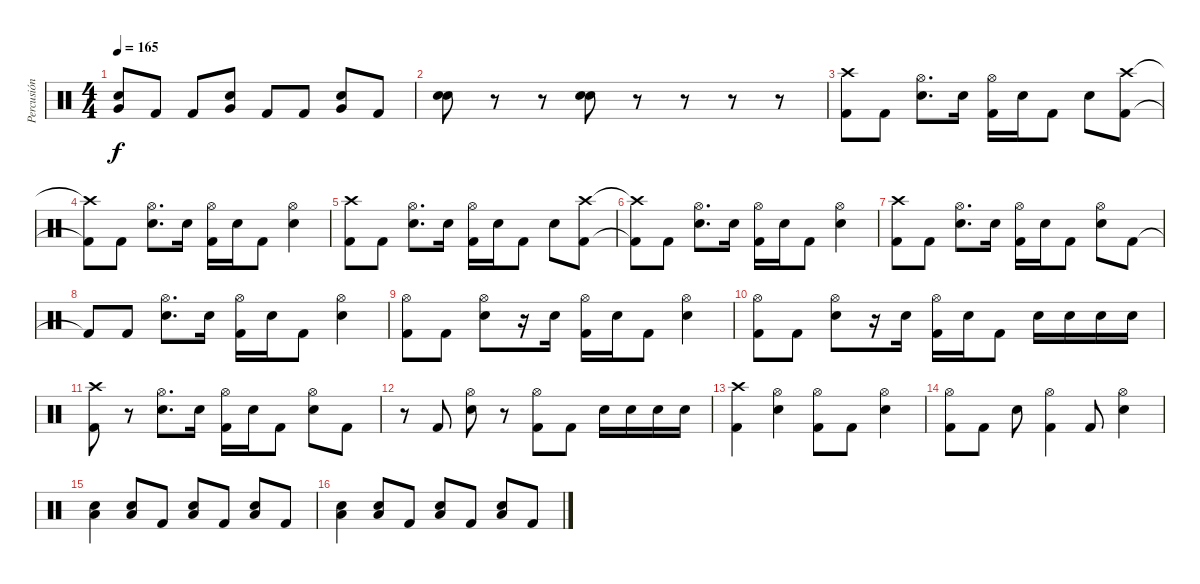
\track ("Percusión" "Percusión") {instrument percussion}
\staff {score}
\articulation defaults
\ts (4 4)
\tempo 165
\clef neutral
\ks c
("Very Low Tom (hit)" "Electric Snare (hit)").8{dy f} "Kick (hit) 2".8 "Kick (hit) 2".8 ("Very Low Tom (hit)" "Electric Snare (hit)").8 "Kick (hit) 2".8 "Kick (hit) 2".8 ("Very Low Tom (hit)" "Electric Snare (hit)").8 "Kick (hit) 2".8 |
("Electric Snare (hit)" "Electric Snare (hit)").8{bd 240} r.8 r.8 ("Electric Snare (hit)" "Electric Snare (hit)").8{bd 240} r.8 r.8 r.8 r.8 |
("Crash high (hit)" "Kick (hit) 2").8 "Kick (hit) 2".8 ("Hi-Hat (open)" "Electric Snare (hit)").8{d} "Electric Snare (hit)".16 ("Hi-Hat (open)" "Kick (hit) 2").16 "Electric Snare (hit)".16 "Kick (hit) 2".8 "Electric Snare (hit)".8 ("Crash high (hit)" "Kick (hit) 2").8 |
("Crash high (hit)"{t} "Kick (hit) 2"{t}).8 "Kick (hit) 2".8 ("Hi-Hat (open)" "Electric Snare (hit)").8{d} "Electric Snare (hit)".16 ("Hi-Hat (open)" "Kick (hit) 2").16 "Electric Snare (hit)".16 "Kick (hit) 2".8 ("Hi-Hat (open)" "Electric Snare (hit)").4 |
("Crash high (hit)" "Kick (hit) 2").8 "Kick (hit) 2".8 ("Hi-Hat (open)" "Electric Snare (hit)").8{d} "Electric Snare (hit)".16 ("Hi-Hat (open)" "Kick (hit) 2").16 "Electric Snare (hit)".16 "Kick (hit) 2".8 "Electric Snare (hit)".8 ("Crash high (hit)" "Kick (hit) 2").8 |
("Crash high (hit)"{t} "Kick (hit) 2"{t}).8 "Kick (hit) 2".8 ("Hi-Hat (open)" "Electric Snare (hit)").8{d} "Electric Snare (hit)".16 ("Hi-Hat (open)" "Kick (hit) 2").16 "Electric Snare (hit)".16 "Kick (hit) 2".8 ("Hi-Hat (open)" "Electric Snare (hit)").4 |
("Crash high (hit)" "Kick (hit) 2").8 "Kick (hit) 2".8 ("Hi-Hat (open)" "Electric Snare (hit)").8{d} "Electric Snare (hit)".16 ("Hi-Hat (open)" "Kick (hit) 2").16 "Electric Snare (hit)".16 "Kick (hit) 2".8 ("Hi-Hat (open)" "Electric Snare (hit)").8 "Kick (hit) 2".8 |
"Kick (hit) 2"{t}.8 "Kick (hit) 2".8 ("Hi-Hat (open)" "Electric Snare (hit)").8{d} "Electric Snare (hit)".16 ("Hi-Hat (open)" "Kick (hit) 2").16 "Electric Snare (hit)".16 "Kick (hit) 2".8 ("Hi-Hat (open)" "Electric Snare (hit)").4 |
("Hi-Hat (open)" "Kick (hit) 2").8 "Kick (hit) 2".8 ("Hi-Hat (open)" "Electric Snare (hit)").8 r.16 "Electric Snare (hit)".16 ("Hi-Hat (open)" "Kick (hit) 2").16 "Electric Snare (hit)".16 "Kick (hit) 2".8 ("Hi-Hat (open)" "Electric Snare (hit)").4 |
("Hi-Hat (open)" "Kick (hit) 2").8 "Kick (hit) 2".8 ("Hi-Hat (open)" "Electric Snare (hit)").8 r.16 "Electric Snare (hit)".16 ("Hi-Hat (open)" "Kick (hit) 2").16 "Electric Snare (hit)".16 "Kick (hit) 2".8 "Electric Snare (hit)".16 "Electric Snare (hit)".16 "Electric Snare (hit)".16 "Electric Snare (hit)".16 |
("Crash high (hit)" "Kick (hit) 2").8 r.8 ("Hi-Hat (open)" "Electric Snare (hit)").8{d} "Electric Snare (hit)".16 ("Hi-Hat (open)" "Kick (hit) 2").16 "Electric Snare (hit)".16 "Kick (hit) 2".8 ("Hi-Hat (open)" "Electric Snare (hit)").8 "Kick (hit) 2".8 |
r.8 "Kick (hit) 2".8 ("Hi-Hat (open)" "Electric Snare (hit)").8 r.8 ("Hi-Hat (open)" "Kick (hit) 2").8 "Kick (hit) 2".8 "Electric Snare (hit)".16 "Electric Snare (hit)".16 "Electric Snare (hit)".16 "Electric Snare (hit)".16 |
("Crash high (hit)" "Kick (hit) 2").4 ("Hi-Hat (open)" "Electric Snare (hit)").4 ("Hi-Hat (open)" "Kick (hit) 2").8 "Kick (hit) 2".8 ("Hi-Hat (open)" "Electric Snare (hit)").4 |
("Hi-Hat (open)" "Kick (hit) 2").8 "Kick (hit) 2".8 "Electric Snare (hit)".8 ("Hi-Hat (open)" "Kick (hit) 2").4 "Kick (hit) 2".8 ("Hi-Hat (open)" "Electric Snare (hit)").4 |
("Low Tom (hit)" "Electric Snare (hit)").4 ("Low Tom (hit)" "Electric Snare (hit)").8 "Kick (hit) 2".8 ("Low Tom (hit)" "Electric Snare (hit)").8 "Kick (hit) 2".8 ("Low Tom (hit)" "Electric Snare (hit)").8 "Kick (hit) 2".8 |
("Low Tom (hit)" "Electric Snare (hit)").4 ("Low Tom (hit)" "Electric Snare (hit)").8 "Kick (hit) 2".8 ("Low Tom (hit)" "Electric Snare (hit)").8 "Kick (hit) 2".8 ("Low Tom (hit)" "Electric Snare (hit)").8 "Kick (hit) 2".8
